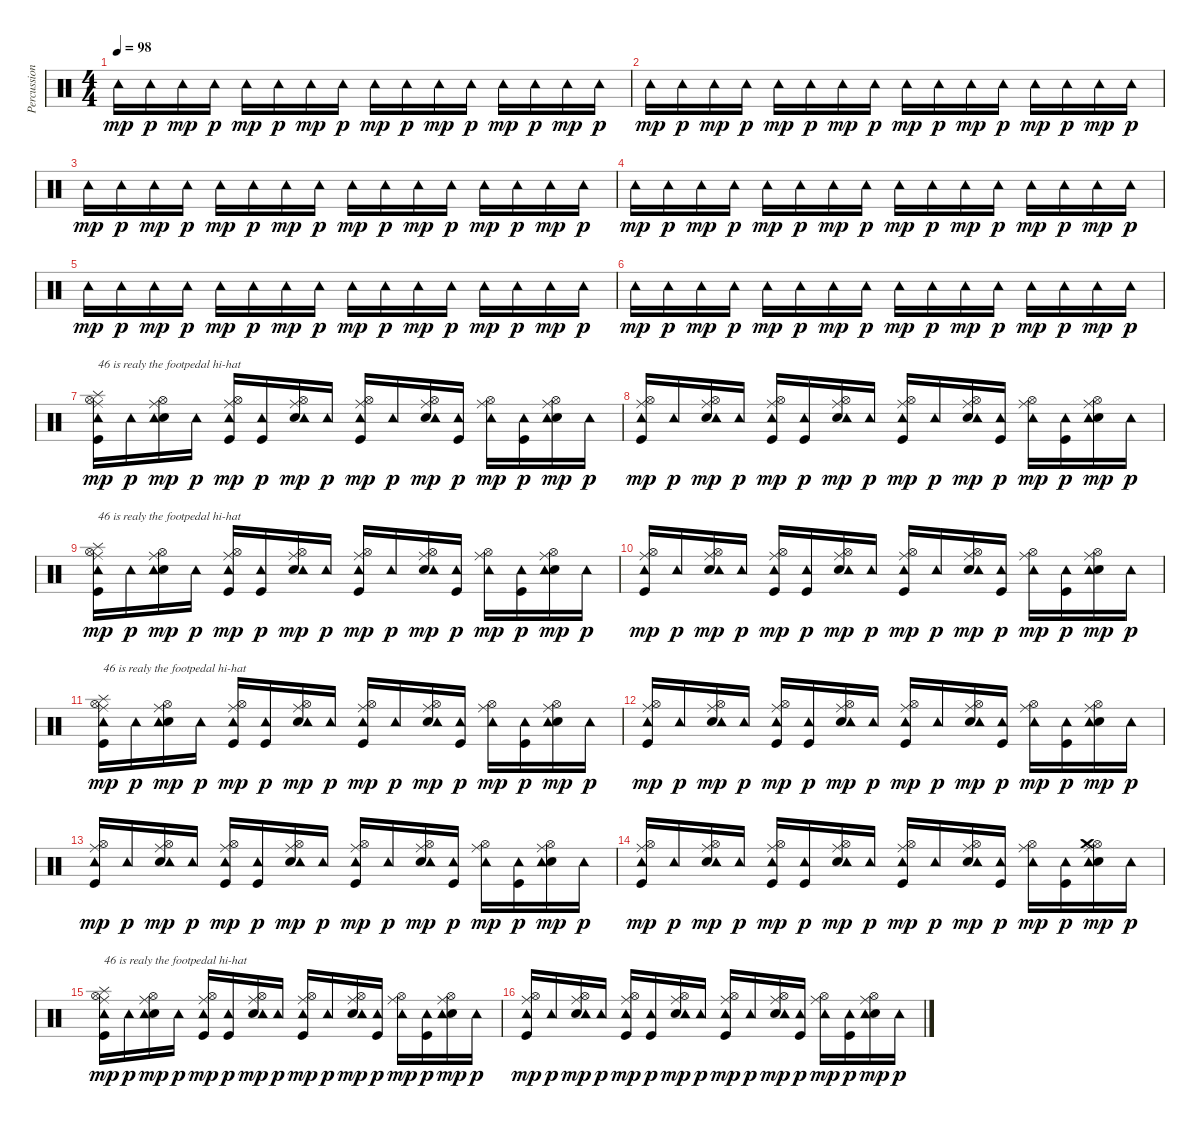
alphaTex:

\track ("Percussion" "Percussion") {instrument percussion}
\staff {score}
\articulation defaults
\ts (4 4)
\tempo 98
\clef neutral
\ks c "Tambourine (hit)".16{dy mp} "Tambourine (hit)".16{dy p} "Tambourine (hit)".16{dy mp} "Tambourine (hit)".16{dy p} "Tambourine (hit)".16{dy mp} "Tambourine (hit)".16{dy p} "Tambourine (hit)".16{dy mp} "Tambourine (hit)".16{dy p} "Tambourine (hit)".16{dy mp} "Tambourine (hit)".16{dy p} "Tambourine (hit)".16{dy mp} "Tambourine (hit)".16{dy p} "Tambourine (hit)".16{dy mp} "Tambourine (hit)".16{dy p} "Tambourine (hit)".16{dy mp} "Tambourine (hit)".16{dy p}
|
"Tambourine (hit)".16{dy mp} "Tambourine (hit)".16{dy p} "Tambourine (hit)".16{dy mp} "Tambourine (hit)".16{dy p} "Tambourine (hit)".16{dy mp} "Tambourine (hit)".16{dy p} "Tambourine (hit)".16{dy mp} "Tambourine (hit)".16{dy p} "Tambourine (hit)".16{dy mp} "Tambourine (hit)".16{dy p} "Tambourine (hit)".16{dy mp} "Tambourine (hit)".16{dy p} "Tambourine (hit)".16{dy mp} "Tambourine (hit)".16{dy p} "Tambourine (hit)".16{dy mp} "Tambourine (hit)".16{dy p} |
"Tambourine (hit)".16{dy mp} "Tambourine (hit)".16{dy p} "Tambourine (hit)".16{dy mp} "Tambourine (hit)".16{dy p} "Tambourine (hit)".16{dy mp} "Tambourine (hit)".16{dy p} "Tambourine (hit)".16{dy mp} "Tambourine (hit)".16{dy p} "Tambourine (hit)".16{dy mp} "Tambourine (hit)".16{dy p} "Tambourine (hit)".16{dy mp} "Tambourine (hit)".16{dy p} "Tambourine (hit)".16{dy mp} "Tambourine (hit)".16{dy p} "Tambourine (hit)".16{dy mp} "Tambourine (hit)".16{dy p} |
"Tambourine (hit)".16{dy mp} "Tambourine (hit)".16{dy p} "Tambourine (hit)".16{dy mp} "Tambourine (hit)".16{dy p} "Tambourine (hit)".16{dy mp} "Tambourine (hit)".16{dy p} "Tambourine (hit)".16{dy mp} "Tambourine (hit)".16{dy p} "Tambourine (hit)".16{dy mp} "Tambourine (hit)".16{dy p} "Tambourine (hit)".16{dy mp} "Tambourine (hit)".16{dy p} "Tambourine (hit)".16{dy mp} "Tambourine (hit)".16{dy p} "Tambourine (hit)".16{dy mp} "Tambourine (hit)".16{dy p} |
"Tambourine (hit)".16{dy mp} "Tambourine (hit)".16{dy p} "Tambourine (hit)".16{dy mp} "Tambourine (hit)".16{dy p} "Tambourine (hit)".16{dy mp} "Tambourine (hit)".16{dy p} "Tambourine (hit)".16{dy mp} "Tambourine (hit)".16{dy p} "Tambourine (hit)".16{dy mp} "Tambourine (hit)".16{dy p} "Tambourine (hit)".16{dy mp} "Tambourine (hit)".16{dy p} "Tambourine (hit)".16{dy mp} "Tambourine (hit)".16{dy p} "Tambourine (hit)".16{dy mp} "Tambourine (hit)".16{dy p} |
"Tambourine (hit)".16{dy mp} "Tambourine (hit)".16{dy p} "Tambourine (hit)".16{dy mp} "Tambourine (hit)".16{dy p} "Tambourine (hit)".16{dy mp} "Tambourine (hit)".16{dy p} "Tambourine (hit)".16{dy mp} "Tambourine (hit)".16{dy p} "Tambourine (hit)".16{dy mp} "Tambourine (hit)".16{dy p} "Tambourine (hit)".16{dy mp} "Tambourine (hit)".16{dy p} "Tambourine (hit)".16{dy mp} "Tambourine (hit)".16{dy p} "Tambourine (hit)".16{dy mp} "Tambourine (hit)".16{dy p} |
("Ride (middle)" "Hi-Hat (open)" "Kick (hit)" "Tambourine (hit)" "Splash (hit)").16{txt "46 is realy the footpedal hi-hat" dy mp} "Tambourine (hit)".16{dy p} ("Ride (middle)" "Hi-Hat (open)" "Snare (hit) 2" "Tambourine (hit)").16{dy mp} "Tambourine (hit)".16{dy p} ("Ride (middle)" "Hi-Hat (open)" "Kick (hit)" "Tambourine (hit)").16{dy mp} ("Kick (hit)" "Tambourine (hit)").16{dy p} ("Ride (middle)" "Hi-Hat (open)" "Snare (hit) 2" "Tambourine (hit)").16{dy mp} "Tambourine (hit)".16{dy p} ("Ride (middle)" "Hi-Hat (open)" "Kick (hit)" "Tambourine (hit)").16{dy mp} "Tambourine (hit)".16{dy p} ("Ride (middle)" "Hi-Hat (open)" "Snare (hit) 2" "Tambourine (hit)").16{dy mp} ("Kick (hit)" "Tambourine (hit)").16{dy p} ("Ride (middle)" "Hi-Hat (open)" "Tambourine (hit)").16{dy mp} ("Kick (hit)" "Tambourine (hit)").16{dy p} ("Ride (middle)" "Hi-Hat (open)" "Snare (hit) 2" "Tambourine (hit)").16{dy mp} "Tambourine (hit)".16{dy p} |
("Ride (middle)" "Hi-Hat (open)" "Kick (hit)" "Tambourine (hit)").16{dy mp} "Tambourine (hit)".16{dy p} ("Ride (middle)" "Hi-Hat (open)" "Snare (hit) 2" "Tambourine (hit)").16{dy mp} "Tambourine (hit)".16{dy p} ("Ride (middle)" "Hi-Hat (open)" "Kick (hit)" "Tambourine (hit)").16{dy mp} ("Kick (hit)" "Tambourine (hit)").16{dy p} ("Ride (middle)" "Hi-Hat (open)" "Snare (hit) 2" "Tambourine (hit)").16{dy mp} "Tambourine (hit)".16{dy p} ("Ride (middle)" "Hi-Hat (open)" "Kick (hit)" "Tambourine (hit)").16{dy mp} "Tambourine (hit)".16{dy p} ("Ride (middle)" "Hi-Hat (open)" "Snare (hit) 2" "Tambourine (hit)").16{dy mp} ("Kick (hit)" "Tambourine (hit)").16{dy p} ("Ride (middle)" "Hi-Hat (open)" "Tambourine (hit)").16{dy mp} ("Kick (hit)" "Tambourine (hit)").16{dy p} ("Ride (middle)" "Hi-Hat (open)" "Snare (hit) 2" "Tambourine (hit)").16{dy mp} "Tambourine (hit)".16{dy p} |
("Ride (middle)" "Hi-Hat (open)" "Kick (hit)" "Tambourine (hit)" "Splash (hit)").16{txt "46 is realy the footpedal hi-hat" dy mp} "Tambourine (hit)".16{dy p} ("Ride (middle)" "Hi-Hat (open)" "Snare (hit) 2" "Tambourine (hit)").16{dy mp} "Tambourine (hit)".16{dy p} ("Ride (middle)" "Hi-Hat (open)" "Kick (hit)" "Tambourine (hit)").16{dy mp} ("Kick (hit)" "Tambourine (hit)").16{dy p} ("Ride (middle)" "Hi-Hat (open)" "Snare (hit) 2" "Tambourine (hit)").16{dy mp} "Tambourine (hit)".16{dy p} ("Ride (middle)" "Hi-Hat (open)" "Kick (hit)" "Tambourine (hit)").16{dy mp} "Tambourine (hit)".16{dy p} ("Ride (middle)" "Hi-Hat (open)" "Snare (hit) 2" "Tambourine (hit)").16{dy mp} ("Kick (hit)" "Tambourine (hit)").16{dy p} ("Ride (middle)" "Hi-Hat (open)" "Tambourine (hit)").16{dy mp} ("Kick (hit)" "Tambourine (hit)").16{dy p} ("Ride (middle)" "Hi-Hat (open)" "Snare (hit) 2" "Tambourine (hit)").16{dy mp} "Tambourine (hit)".16{dy p} |
("Ride (middle)" "Hi-Hat (open)" "Kick (hit)" "Tambourine (hit)").16{dy mp} "Tambourine (hit)".16{dy p} ("Ride (middle)" "Hi-Hat (open)" "Snare (hit) 2" "Tambourine (hit)").16{dy mp} "Tambourine (hit)".16{dy p} ("Ride (middle)" "Hi-Hat (open)" "Kick (hit)" "Tambourine (hit)").16{dy mp} ("Kick (hit)" "Tambourine (hit)").16{dy p} ("Ride (middle)" "Hi-Hat (open)" "Snare (hit) 2" "Tambourine (hit)").16{dy mp} "Tambourine (hit)".16{dy p} ("Ride (middle)" "Hi-Hat (open)" "Kick (hit)" "Tambourine (hit)").16{dy mp} "Tambourine (hit)".16{dy p} ("Ride (middle)" "Hi-Hat (open)" "Snare (hit) 2" "Tambourine (hit)").16{dy mp} ("Kick (hit)" "Tambourine (hit)").16{dy p} ("Ride (middle)" "Hi-Hat (open)" "Tambourine (hit)").16{dy mp} ("Kick (hit)" "Tambourine (hit)").16{dy p} ("Ride (middle)" "Hi-Hat (open)" "Snare (hit) 2" "Tambourine (hit)").16{dy mp} "Tambourine (hit)".16{dy p} |
("Ride (middle)" "Hi-Hat (open)" "Kick (hit)" "Tambourine (hit)" "Splash (hit)").16{txt "46 is realy the footpedal hi-hat" dy mp} "Tambourine (hit)".16{dy p} ("Ride (middle)" "Hi-Hat (open)" "Snare (hit) 2" "Tambourine (hit)").16{dy mp} "Tambourine (hit)".16{dy p} ("Ride (middle)" "Hi-Hat (open)" "Kick (hit)" "Tambourine (hit)").16{dy mp} ("Kick (hit)" "Tambourine (hit)").16{dy p} ("Ride (middle)" "Hi-Hat (open)" "Snare (hit) 2" "Tambourine (hit)").16{dy mp} "Tambourine (hit)".16{dy p} ("Ride (middle)" "Hi-Hat (open)" "Kick (hit)" "Tambourine (hit)").16{dy mp} "Tambourine (hit)".16{dy p} ("Ride (middle)" "Hi-Hat (open)" "Snare (hit) 2" "Tambourine (hit)").16{dy mp} ("Kick (hit)" "Tambourine (hit)").16{dy p} ("Ride (middle)" "Hi-Hat (open)" "Tambourine (hit)").16{dy mp} ("Kick (hit)" "Tambourine (hit)").16{dy p} ("Ride (middle)" "Hi-Hat (open)" "Snare (hit) 2" "Tambourine (hit)").16{dy mp} "Tambourine (hit)".16{dy p} |
("Ride (middle)" "Hi-Hat (open)" "Kick (hit)" "Tambourine (hit)").16{dy mp} "Tambourine (hit)".16{dy p} ("Ride (middle)" "Hi-Hat (open)" "Snare (hit) 2" "Tambourine (hit)").16{dy mp} "Tambourine (hit)".16{dy p} ("Ride (middle)" "Hi-Hat (open)" "Kick (hit)" "Tambourine (hit)").16{dy mp} ("Kick (hit)" "Tambourine (hit)").16{dy p} ("Ride (middle)" "Hi-Hat (open)" "Snare (hit) 2" "Tambourine (hit)").16{dy mp} "Tambourine (hit)".16{dy p} ("Ride (middle)" "Hi-Hat (open)" "Kick (hit)" "Tambourine (hit)").16{dy mp} "Tambourine (hit)".16{dy p} ("Ride (middle)" "Hi-Hat (open)" "Snare (hit) 2" "Tambourine (hit)").16{dy mp} ("Kick (hit)" "Tambourine (hit)").16{dy p} ("Ride (middle)" "Hi-Hat (open)" "Tambourine (hit)").16{dy mp} ("Kick (hit)" "Tambourine (hit)").16{dy p} ("Ride (middle)" "Hi-Hat (open)" "Snare (hit) 2" "Tambourine (hit)").16{dy mp} "Tambourine (hit)".16{dy p} |
("Ride (middle)" "Hi-Hat (open)" "Kick (hit)" "Tambourine (hit)").16{dy mp} "Tambourine (hit)".16{dy p} ("Ride (middle)" "Hi-Hat (open)" "Snare (hit) 2" "Tambourine (hit)").16{dy mp} "Tambourine (hit)".16{dy p} ("Ride (middle)" "Hi-Hat (open)" "Kick (hit)" "Tambourine (hit)").16{dy mp} ("Kick (hit)" "Tambourine (hit)").16{dy p} ("Ride (middle)" "Hi-Hat (open)" "Snare (hit) 2" "Tambourine (hit)").16{dy mp} "Tambourine (hit)".16{dy p} ("Ride (middle)" "Hi-Hat (open)" "Kick (hit)" "Tambourine (hit)").16{dy mp} "Tambourine (hit)".16{dy p} ("Ride (middle)" "Hi-Hat (open)" "Snare (hit) 2" "Tambourine (hit)").16{dy mp} ("Kick (hit)" "Tambourine (hit)").16{dy p} ("Ride (middle)" "Hi-Hat (open)" "Tambourine (hit)").16{dy mp} ("Kick (hit)" "Tambourine (hit)").16{dy p} ("Ride (middle)" "Hi-Hat (open)" "Snare (hit) 2" "Tambourine (hit)").16{dy mp} "Tambourine (hit)".16{dy p} |
("Ride (middle)" "Hi-Hat (open)" "Kick (hit)" "Tambourine (hit)").16{dy mp} "Tambourine (hit)".16{dy p} ("Ride (middle)" "Hi-Hat (open)" "Snare (hit) 2" "Tambourine (hit)").16{dy mp} "Tambourine (hit)".16{dy p} ("Ride (middle)" "Hi-Hat (open)" "Kick (hit)" "Tambourine (hit)").16{dy mp} ("Kick (hit)" "Tambourine (hit)").16{dy p} ("Ride (middle)" "Hi-Hat (open)" "Snare (hit) 2" "Tambourine (hit)").16{dy mp} "Tambourine (hit)".16{dy p} ("Ride (middle)" "Hi-Hat (open)" "Kick (hit)" "Tambourine (hit)").16{dy mp} "Tambourine (hit)".16{dy p} ("Ride (middle)" "Hi-Hat (open)" "Snare (hit) 2" "Tambourine (hit)").16{dy mp} ("Kick (hit)" "Tambourine (hit)").16{dy p} ("Ride (middle)" "Hi-Hat (open)" "Tambourine (hit)").16{dy mp} ("Kick (hit)" "Tambourine (hit)").16{dy p} ("Ride (middle)" "Hi-Hat (open)" "Snare (hit) 2" "Tambourine (hit)" "Crash medium (hit)").16{dy mp} "Tambourine (hit)".16{dy p} |
("Ride (middle)" "Hi-Hat (open)" "Kick (hit)" "Tambourine (hit)" "Splash (hit)").16{txt "46 is realy the footpedal hi-hat" dy mp} "Tambourine (hit)".16{dy p} ("Ride (middle)" "Hi-Hat (open)" "Snare (hit) 2" "Tambourine (hit)").16{dy mp} "Tambourine (hit)".16{dy p} ("Ride (middle)" "Hi-Hat (open)" "Kick (hit)" "Tambourine (hit)").16{dy mp} ("Kick (hit)" "Tambourine (hit)").16{dy p} ("Ride (middle)" "Hi-Hat (open)" "Snare (hit) 2" "Tambourine (hit)").16{dy mp} "Tambourine (hit)".16{dy p} ("Ride (middle)" "Hi-Hat (open)" "Kick (hit)" "Tambourine (hit)").16{dy mp} "Tambourine (hit)".16{dy p} ("Ride (middle)" "Hi-Hat (open)" "Snare (hit) 2" "Tambourine (hit)").16{dy mp} ("Kick (hit)" "Tambourine (hit)").16{dy p} ("Ride (middle)" "Hi-Hat (open)" "Tambourine (hit)").16{dy mp} ("Kick (hit)" "Tambourine (hit)").16{dy p} ("Ride (middle)" "Hi-Hat (open)" "Snare (hit) 2" "Tambourine (hit)").16{dy mp} "Tambourine (hit)".16{dy p} |
("Ride (middle)" "Hi-Hat (open)" "Kick (hit)" "Tambourine (hit)").16{dy mp} "Tambourine (hit)".16{dy p} ("Ride (middle)" "Hi-Hat (open)" "Snare (hit) 2" "Tambourine (hit)").16{dy mp} "Tambourine (hit)".16{dy p} ("Ride (middle)" "Hi-Hat (open)" "Kick (hit)" "Tambourine (hit)").16{dy mp} ("Kick (hit)" "Tambourine (hit)").16{dy p} ("Ride (middle)" "Hi-Hat (open)" "Snare (hit) 2" "Tambourine (hit)").16{dy mp} "Tambourine (hit)".16{dy p} ("Ride (middle)" "Hi-Hat (open)" "Kick (hit)" "Tambourine (hit)").16{dy mp} "Tambourine (hit)".16{dy p} ("Ride (middle)" "Hi-Hat (open)" "Snare (hit) 2" "Tambourine (hit)").16{dy mp} ("Kick (hit)" "Tambourine (hit)").16{dy p} ("Ride (middle)" "Hi-Hat (open)" "Tambourine (hit)").16{dy mp} ("Kick (hit)" "Tambourine (hit)").16{dy p} ("Ride (middle)" "Hi-Hat (open)" "Snare (hit) 2" "Tambourine (hit)").16{dy mp} "Tambourine (hit)".16{dy p}
